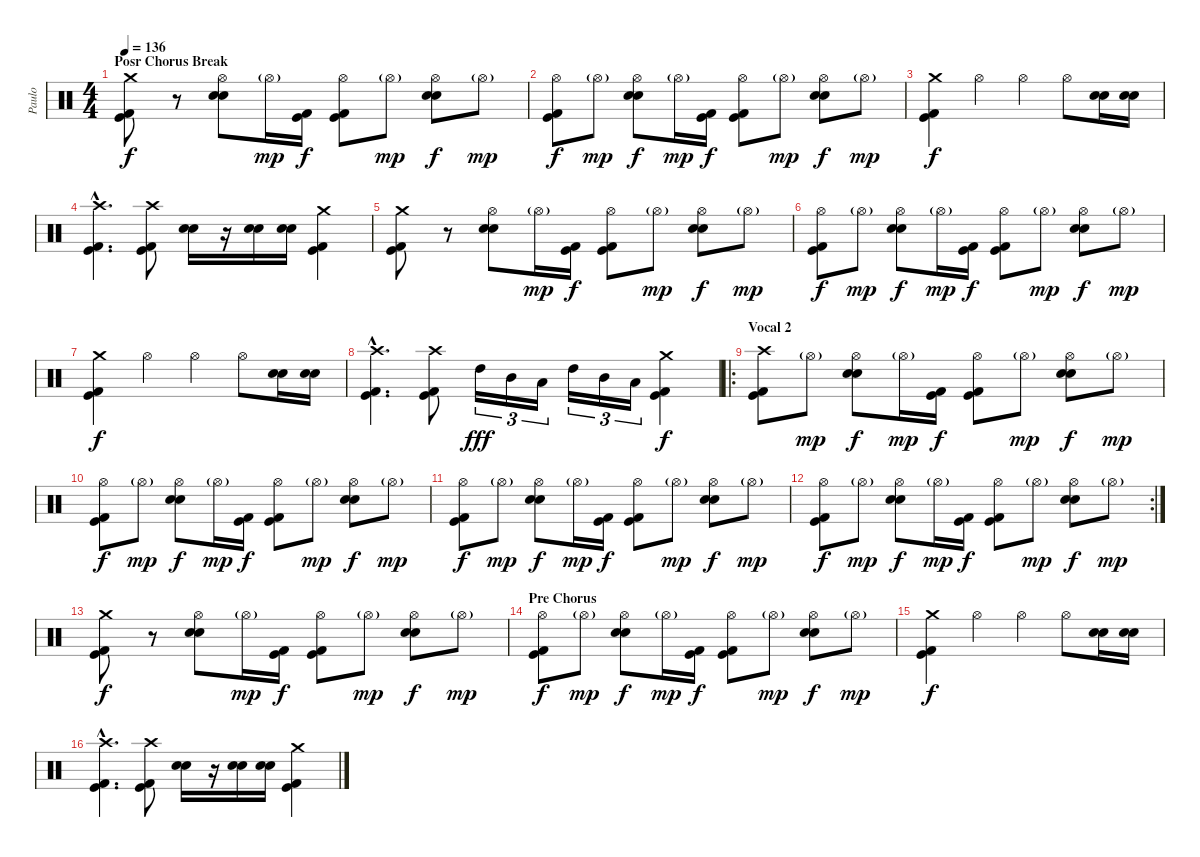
\track ("Paulo" "Paulo") {instrument percussion}
\staff {score}
\articulation defaults
\ts (4 4)
\section ("" "Posr Chorus Break")
\tempo 136
\clef neutral
\ks c
("Crash medium (hit)" "Kick (hit) 2" "Kick (hit)").8{dy f} r.8 ("Hi-Hat (open)" "Electric Snare (hit)" "Snare (hit) 2").8 "Hi-Hat (open)"{g}.16{dy mp} ("Kick (hit) 2" "Kick (hit)").16{dy f} ("Hi-Hat (open)" "Kick (hit) 2" "Kick (hit)").8 "Hi-Hat (open)"{g}.8{dy mp} ("Hi-Hat (open)" "Electric Snare (hit)" "Snare (hit) 2").8{dy f} "Hi-Hat (open)"{g}.8{dy mp} |
("Hi-Hat (open)" "Kick (hit) 2" "Kick (hit)").8{dy f} "Hi-Hat (open)"{g}.8{dy mp} ("Hi-Hat (open)" "Electric Snare (hit)" "Snare (hit) 2").8{dy f} "Hi-Hat (open)"{g}.16{dy mp} ("Kick (hit) 2" "Kick (hit)").16{dy f} ("Hi-Hat (open)" "Kick (hit) 2" "Kick (hit)").8 "Hi-Hat (open)"{g}.8{dy mp} ("Hi-Hat (open)" "Electric Snare (hit)" "Snare (hit) 2").8{dy f} "Hi-Hat (open)"{g}.8{dy mp} |
("Crash medium (hit)" "Kick (hit) 2" "Kick (hit)").4{dy f} "Hi-Hat (open)".4 "Hi-Hat (open)".4 "Hi-Hat (open)".8 ("Snare (hit) 2" "Electric Snare (hit)").16 ("Snare (hit) 2" "Electric Snare (hit)").16 |
("Crash high (hit)"{hac} "Kick (hit) 2"{hac} "Kick (hit)"{hac}).4{d} ("Crash high (hit)" "Kick (hit) 2" "Kick (hit)").8 ("Snare (hit) 2" "Electric Snare (hit)").16 r.16 ("Snare (hit) 2" "Electric Snare (hit)").16 ("Snare (hit) 2" "Electric Snare (hit)").16 ("Crash medium (hit)" "Kick (hit) 2" "Kick (hit)").4 |
("Crash medium (hit)" "Kick (hit) 2" "Kick (hit)").8 r.8 ("Hi-Hat (open)" "Electric Snare (hit)" "Snare (hit) 2").8 "Hi-Hat (open)"{g}.16{dy mp} ("Kick (hit) 2" "Kick (hit)").16{dy f} ("Hi-Hat (open)" "Kick (hit) 2" "Kick (hit)").8 "Hi-Hat (open)"{g}.8{dy mp} ("Hi-Hat (open)" "Electric Snare (hit)" "Snare (hit) 2").8{dy f} "Hi-Hat (open)"{g}.8{dy mp} |
("Hi-Hat (open)" "Kick (hit) 2" "Kick (hit)").8{dy f} "Hi-Hat (open)"{g}.8{dy mp} ("Hi-Hat (open)" "Electric Snare (hit)" "Snare (hit) 2").8{dy f} "Hi-Hat (open)"{g}.16{dy mp} ("Kick (hit) 2" "Kick (hit)").16{dy f} ("Hi-Hat (open)" "Kick (hit) 2" "Kick (hit)").8 "Hi-Hat (open)"{g}.8{dy mp} ("Hi-Hat (open)" "Electric Snare (hit)" "Snare (hit) 2").8{dy f} "Hi-Hat (open)"{g}.8{dy mp} |
("Crash medium (hit)" "Kick (hit) 2" "Kick (hit)").4{dy f} "Hi-Hat (open)".4 "Hi-Hat (open)".4 "Hi-Hat (open)".8 ("Snare (hit) 2" "Electric Snare (hit)").16 ("Snare (hit) 2" "Electric Snare (hit)").16 |
("Crash high (hit)"{hac} "Kick (hit) 2"{hac} "Kick (hit)"{hac}).4{d} ("Crash high (hit)" "Kick (hit) 2" "Kick (hit)").8 "High Tom (hit)".16{tu (3 2) dy fff} "Mid Tom (hit)".16{tu (3 2)} "Low Tom (hit)".16{tu (3 2)} "High Tom (hit)".16{tu (3 2)} "Mid Tom (hit)".16{tu (3 2)} "Low Tom (hit)".16{tu (3 2)} ("Crash medium (hit)" "Kick (hit) 2" "Kick (hit)").4{dy f} |
\ro
\section ("" "Vocal 2")
("Crash high (hit)" "Kick (hit) 2" "Kick (hit)").8 "Hi-Hat (open)"{g}.8{dy mp} ("Hi-Hat (open)" "Electric Snare (hit)" "Snare (hit) 2").8{dy f} "Hi-Hat (open)"{g}.16{dy mp} ("Kick (hit) 2" "Kick (hit)").16{dy f} ("Hi-Hat (open)" "Kick (hit) 2" "Kick (hit)").8 "Hi-Hat (open)"{g}.8{dy mp} ("Hi-Hat (open)" "Electric Snare (hit)" "Snare (hit) 2").8{dy f} "Hi-Hat (open)"{g}.8{dy mp} |
("Hi-Hat (open)" "Kick (hit) 2" "Kick (hit)").8{dy f} "Hi-Hat (open)"{g}.8{dy mp} ("Hi-Hat (open)" "Electric Snare (hit)" "Snare (hit) 2").8{dy f} "Hi-Hat (open)"{g}.16{dy mp} ("Kick (hit) 2" "Kick (hit)").16{dy f} ("Hi-Hat (open)" "Kick (hit) 2" "Kick (hit)").8 "Hi-Hat (open)"{g}.8{dy mp} ("Hi-Hat (open)" "Electric Snare (hit)" "Snare (hit) 2").8{dy f} "Hi-Hat (open)"{g}.8{dy mp} |
("Hi-Hat (open)" "Kick (hit) 2" "Kick (hit)").8{dy f} "Hi-Hat (open)"{g}.8{dy mp} ("Hi-Hat (open)" "Electric Snare (hit)" "Snare (hit) 2").8{dy f} "Hi-Hat (open)"{g}.16{dy mp} ("Kick (hit) 2" "Kick (hit)").16{dy f} ("Hi-Hat (open)" "Kick (hit) 2" "Kick (hit)").8 "Hi-Hat (open)"{g}.8{dy mp} ("Hi-Hat (open)" "Electric Snare (hit)" "Snare (hit) 2").8{dy f} "Hi-Hat (open)"{g}.8{dy mp} |
\rc 2
("Hi-Hat (open)" "Kick (hit) 2" "Kick (hit)").8{dy f} "Hi-Hat (open)"{g}.8{dy mp} ("Hi-Hat (open)" "Electric Snare (hit)" "Snare (hit) 2").8{dy f} "Hi-Hat (open)"{g}.16{dy mp} ("Kick (hit) 2" "Kick (hit)").16{dy f} ("Hi-Hat (open)" "Kick (hit) 2" "Kick (hit)").8 "Hi-Hat (open)"{g}.8{dy mp} ("Hi-Hat (open)" "Electric Snare (hit)" "Snare (hit) 2").8{dy f} "Hi-Hat (open)"{g}.8{dy mp} |
("Crash medium (hit)" "Kick (hit) 2" "Kick (hit)").8{dy f} r.8 ("Hi-Hat (open)" "Electric Snare (hit)" "Snare (hit) 2").8 "Hi-Hat (open)"{g}.16{dy mp} ("Kick (hit) 2" "Kick (hit)").16{dy f} ("Hi-Hat (open)" "Kick (hit) 2" "Kick (hit)").8 "Hi-Hat (open)"{g}.8{dy mp} ("Hi-Hat (open)" "Electric Snare (hit)" "Snare (hit) 2").8{dy f} "Hi-Hat (open)"{g}.8{dy mp} |
\section ("" "Pre Chorus")
("Hi-Hat (open)" "Kick (hit) 2" "Kick (hit)").8{dy f} "Hi-Hat (open)"{g}.8{dy mp} ("Hi-Hat (open)" "Electric Snare (hit)" "Snare (hit) 2").8{dy f} "Hi-Hat (open)"{g}.16{dy mp} ("Kick (hit) 2" "Kick (hit)").16{dy f} ("Hi-Hat (open)" "Kick (hit) 2" "Kick (hit)").8 "Hi-Hat (open)"{g}.8{dy mp} ("Hi-Hat (open)" "Electric Snare (hit)" "Snare (hit) 2").8{dy f} "Hi-Hat (open)"{g}.8{dy mp} |
("Crash medium (hit)" "Kick (hit) 2" "Kick (hit)").4{dy f} "Hi-Hat (open)".4 "Hi-Hat (open)".4 "Hi-Hat (open)".8 ("Snare (hit) 2" "Electric Snare (hit)").16 ("Snare (hit) 2" "Electric Snare (hit)").16 |
("Crash high (hit)"{hac} "Kick (hit) 2"{hac} "Kick (hit)"{hac}).4{d} ("Crash high (hit)" "Kick (hit) 2" "Kick (hit)").8 ("Snare (hit) 2" "Electric Snare (hit)").16 r.16 ("Snare (hit) 2" "Electric Snare (hit)").16 ("Snare (hit) 2" "Electric Snare (hit)").16 ("Crash medium (hit)" "Kick (hit) 2" "Kick (hit)").4
